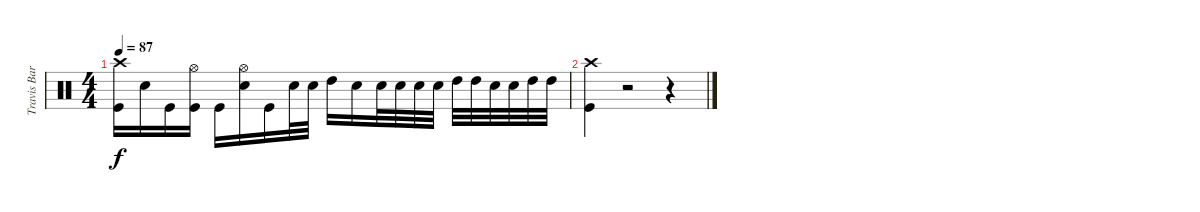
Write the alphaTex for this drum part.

\track ("Travis Barker" "Travis Bar") {instrument percussion}
\staff {score}
\articulation defaults
\ts (4 4)
\tempo 87
\clef neutral
\ks c
("Crash high (hit)" "Kick (hit)").16{dy f} "Electric Snare (hit)".16 "Kick (hit)".16 ("Hi-Hat (open)" "Kick (hit)").16 "Kick (hit)".16 ("Hi-Hat (open)" "Electric Snare (hit)").16 "Kick (hit)".16 "Electric Snare (hit)".32 "Electric Snare (hit)".32 "High Tom (hit)".16 "Electric Snare (hit)".16 "Electric Snare (hit)".32 "Electric Snare (hit)".32 "Electric Snare (hit)".32 "Electric Snare (hit)".32 "High Tom (hit)".32 "High Tom (hit)".32 "Electric Snare (hit)".32 "Electric Snare (hit)".32 "High Tom (hit)".32 "High Tom (hit)".32 |
("Crash high (hit)" "Kick (hit)").4 r.2 r.4
